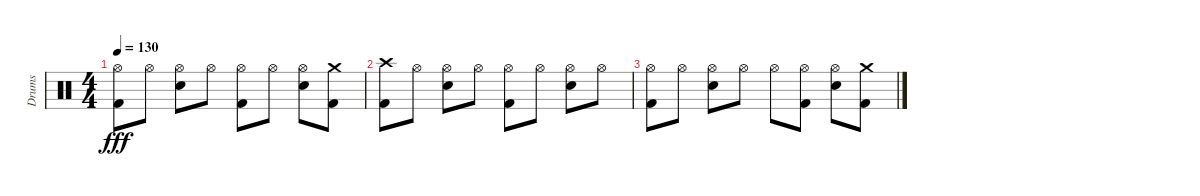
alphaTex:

\track ("Drums" "Drums") {instrument percussion}
\staff {score}
\articulation defaults
\ts (4 4)
\tempo 130
\clef neutral
\ks c
("Hi-Hat (open)" "Kick (hit) 2").8{dy fff volume 0} "Hi-Hat (open)".8 ("Hi-Hat (open)" "Electric Snare (hit)").8 "Hi-Hat (open)".8 ("Hi-Hat (open)" "Kick (hit) 2").8 "Hi-Hat (open)".8 ("Hi-Hat (open)" "Electric Snare (hit)").8 ("Crash medium (hit)" "Kick (hit) 2").8 |
("Crash high (hit)" "Kick (hit) 2").8 "Hi-Hat (open)".8 ("Hi-Hat (open)" "Electric Snare (hit)").8 "Hi-Hat (open)".8 ("Hi-Hat (open)" "Kick (hit) 2").8 "Hi-Hat (open)".8 ("Hi-Hat (open)" "Electric Snare (hit)").8 "Hi-Hat (open)".8 |
("Hi-Hat (open)" "Kick (hit) 2").8 "Hi-Hat (open)".8 ("Hi-Hat (open)" "Electric Snare (hit)").8 "Hi-Hat (open)".8 "Hi-Hat (open)".8 ("Kick (hit) 2" "Hi-Hat (open)").8 ("Electric Snare (hit)" "Hi-Hat (open)").8 ("Kick (hit) 2" "Crash medium (hit)").8
